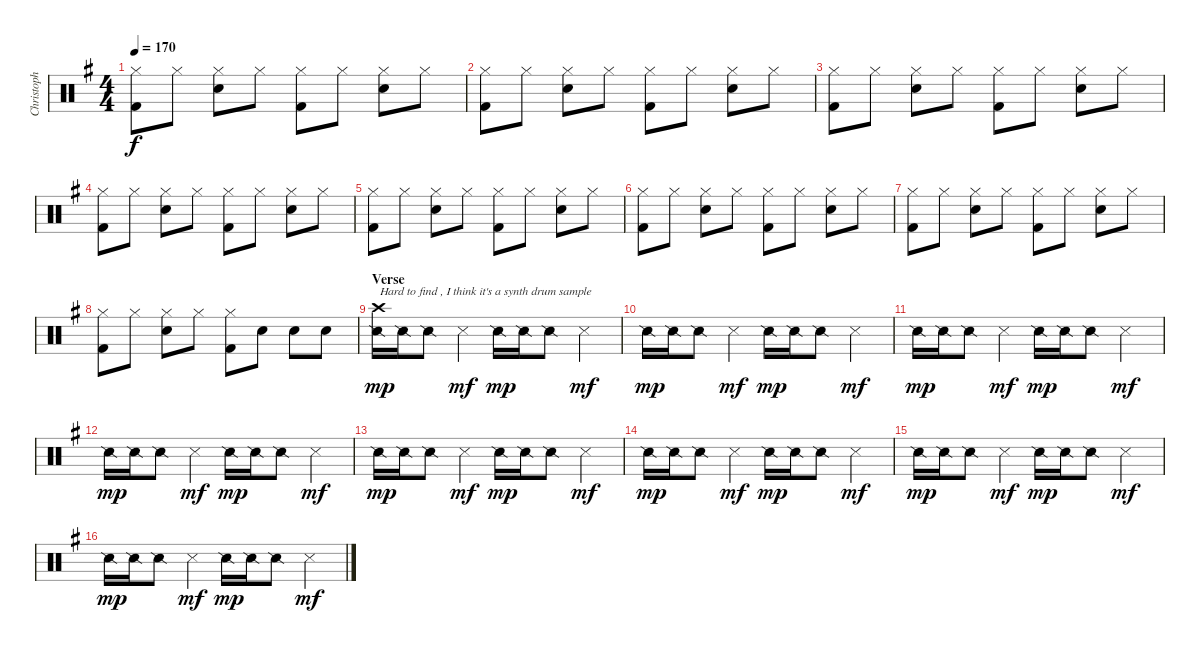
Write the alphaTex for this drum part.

\track ("Christoph Doom Schneider - Drums" "Christoph ") {instrument percussion}
\staff {score}
\articulation defaults
\ts (4 4)
\tempo 170
\clef neutral
\ks g
("Hi-Hat (closed)" "Kick (hit) 2").8{dy f} "Hi-Hat (closed)".8 ("Hi-Hat (closed)" "Electric Snare (hit)").8 "Hi-Hat (closed)".8 ("Hi-Hat (closed)" "Kick (hit) 2").8 "Hi-Hat (closed)".8 ("Hi-Hat (closed)" "Electric Snare (hit)").8 "Hi-Hat (closed)".8 |
("Hi-Hat (closed)" "Kick (hit) 2").8 "Hi-Hat (closed)".8 ("Hi-Hat (closed)" "Electric Snare (hit)").8 "Hi-Hat (closed)".8 ("Hi-Hat (closed)" "Kick (hit) 2").8 "Hi-Hat (closed)".8 ("Hi-Hat (closed)" "Electric Snare (hit)").8 "Hi-Hat (closed)".8 |
("Hi-Hat (closed)" "Kick (hit) 2").8 "Hi-Hat (closed)".8 ("Hi-Hat (closed)" "Electric Snare (hit)").8 "Hi-Hat (closed)".8 ("Hi-Hat (closed)" "Kick (hit) 2").8 "Hi-Hat (closed)".8 ("Hi-Hat (closed)" "Electric Snare (hit)").8 "Hi-Hat (closed)".8 |
("Hi-Hat (closed)" "Kick (hit) 2").8 "Hi-Hat (closed)".8 ("Hi-Hat (closed)" "Electric Snare (hit)").8 "Hi-Hat (closed)".8 ("Hi-Hat (closed)" "Kick (hit) 2").8 "Hi-Hat (closed)".8 ("Hi-Hat (closed)" "Electric Snare (hit)").8 "Hi-Hat (closed)".8 |
("Hi-Hat (closed)" "Kick (hit) 2").8 "Hi-Hat (closed)".8 ("Hi-Hat (closed)" "Electric Snare (hit)").8 "Hi-Hat (closed)".8 ("Hi-Hat (closed)" "Kick (hit) 2").8 "Hi-Hat (closed)".8 ("Hi-Hat (closed)" "Electric Snare (hit)").8 "Hi-Hat (closed)".8 |
("Hi-Hat (closed)" "Kick (hit) 2").8 "Hi-Hat (closed)".8 ("Hi-Hat (closed)" "Electric Snare (hit)").8 "Hi-Hat (closed)".8 ("Hi-Hat (closed)" "Kick (hit) 2").8 "Hi-Hat (closed)".8 ("Hi-Hat (closed)" "Electric Snare (hit)").8 "Hi-Hat (closed)".8 |
("Hi-Hat (closed)" "Kick (hit) 2").8 "Hi-Hat (closed)".8 ("Hi-Hat (closed)" "Electric Snare (hit)").8 "Hi-Hat (closed)".8 ("Hi-Hat (closed)" "Kick (hit) 2").8 "Hi-Hat (closed)".8 ("Hi-Hat (closed)" "Electric Snare (hit)").8 "Hi-Hat (closed)".8 |
("Hi-Hat (closed)" "Kick (hit) 2").8 "Hi-Hat (closed)".8 ("Hi-Hat (closed)" "Electric Snare (hit)").8 "Hi-Hat (closed)".8 ("Hi-Hat (closed)" "Kick (hit) 2").8 "Electric Snare (hit)".8 "Electric Snare (hit)".8 "Electric Snare (hit)".8 |
\section ("" "Verse ")
("Crash high (hit)" "Snare (side stick) 2").16{txt "Hard to find , I think it's a synth drum sample" dy mp} "Snare (side stick) 2".16 "Snare (side stick) 2".8 "Snare (side stick) 3".4{dy mf} "Snare (side stick) 2".16{dy mp} "Snare (side stick) 2".16 "Snare (side stick) 2".8 "Snare (side stick) 3".4{dy mf} |
"Snare (side stick) 2".16{dy mp} "Snare (side stick) 2".16 "Snare (side stick) 2".8 "Snare (side stick) 3".4{dy mf} "Snare (side stick) 2".16{dy mp} "Snare (side stick) 2".16 "Snare (side stick) 2".8 "Snare (side stick) 3".4{dy mf} |
"Snare (side stick) 2".16{dy mp} "Snare (side stick) 2".16 "Snare (side stick) 2".8 "Snare (side stick) 3".4{dy mf} "Snare (side stick) 2".16{dy mp} "Snare (side stick) 2".16 "Snare (side stick) 2".8 "Snare (side stick) 3".4{dy mf} |
"Snare (side stick) 2".16{dy mp} "Snare (side stick) 2".16 "Snare (side stick) 2".8 "Snare (side stick) 3".4{dy mf} "Snare (side stick) 2".16{dy mp} "Snare (side stick) 2".16 "Snare (side stick) 2".8 "Snare (side stick) 3".4{dy mf} |
"Snare (side stick) 2".16{dy mp} "Snare (side stick) 2".16 "Snare (side stick) 2".8 "Snare (side stick) 3".4{dy mf} "Snare (side stick) 2".16{dy mp} "Snare (side stick) 2".16 "Snare (side stick) 2".8 "Snare (side stick) 3".4{dy mf} |
"Snare (side stick) 2".16{dy mp} "Snare (side stick) 2".16 "Snare (side stick) 2".8 "Snare (side stick) 3".4{dy mf} "Snare (side stick) 2".16{dy mp} "Snare (side stick) 2".16 "Snare (side stick) 2".8 "Snare (side stick) 3".4{dy mf} |
"Snare (side stick) 2".16{dy mp} "Snare (side stick) 2".16 "Snare (side stick) 2".8 "Snare (side stick) 3".4{dy mf} "Snare (side stick) 2".16{dy mp} "Snare (side stick) 2".16 "Snare (side stick) 2".8 "Snare (side stick) 3".4{dy mf} |
"Snare (side stick) 2".16{dy mp} "Snare (side stick) 2".16 "Snare (side stick) 2".8 "Snare (side stick) 3".4{dy mf} "Snare (side stick) 2".16{dy mp} "Snare (side stick) 2".16 "Snare (side stick) 2".8 "Snare (side stick) 3".4{dy mf}
